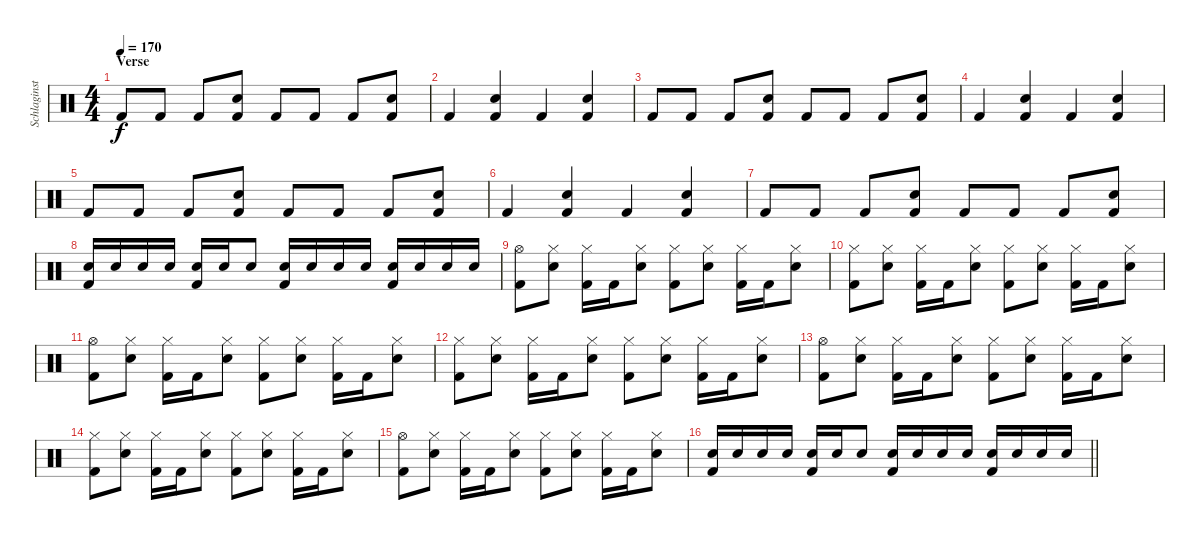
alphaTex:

\track ("Schlaginstrumente - Auswahl" "Schlaginst") {instrument percussion}
\staff {score}
\articulation defaults
\ts (4 4)
\section ("" "Verse")
\tempo 170
\clef neutral
\ks c "Kick (hit) 2".8{dy f} "Kick (hit) 2".8 "Kick (hit) 2".8
("Snare (hit) 2" "Kick (hit) 2").8 "Kick (hit) 2".8 "Kick (hit) 2".8 "Kick (hit) 2".8 ("Snare (hit) 2" "Kick (hit) 2").8 |
"Kick (hit) 2".4 ("Snare (hit) 2" "Kick (hit) 2").4 "Kick (hit) 2".4 ("Snare (hit) 2" "Kick (hit) 2").4 |
"Kick (hit) 2".8 "Kick (hit) 2".8 "Kick (hit) 2".8 ("Snare (hit) 2" "Kick (hit) 2").8 "Kick (hit) 2".8 "Kick (hit) 2".8 "Kick (hit) 2".8 ("Snare (hit) 2" "Kick (hit) 2").8 |
"Kick (hit) 2".4 ("Snare (hit) 2" "Kick (hit) 2").4 "Kick (hit) 2".4 ("Snare (hit) 2" "Kick (hit) 2").4 |
"Kick (hit) 2".8 "Kick (hit) 2".8 "Kick (hit) 2".8 ("Snare (hit) 2" "Kick (hit) 2").8 "Kick (hit) 2".8 "Kick (hit) 2".8 "Kick (hit) 2".8 ("Snare (hit) 2" "Kick (hit) 2").8 |
"Kick (hit) 2".4 ("Snare (hit) 2" "Kick (hit) 2").4 "Kick (hit) 2".4 ("Snare (hit) 2" "Kick (hit) 2").4 |
"Kick (hit) 2".8 "Kick (hit) 2".8 "Kick (hit) 2".8 ("Snare (hit) 2" "Kick (hit) 2").8 "Kick (hit) 2".8 "Kick (hit) 2".8 "Kick (hit) 2".8 ("Snare (hit) 2" "Kick (hit) 2").8 |
("Snare (hit) 2" "Kick (hit) 2").16 "Snare (hit) 2".16 "Snare (hit) 2".16 "Snare (hit) 2".16 ("Snare (hit) 2" "Kick (hit) 2").16 "Snare (hit) 2".16 "Snare (hit) 2".8 ("Snare (hit) 2" "Kick (hit) 2").16 "Snare (hit) 2".16 "Snare (hit) 2".16 "Snare (hit) 2".16 ("Snare (hit) 2" "Kick (hit) 2").16 "Snare (hit) 2".16 "Snare (hit) 2".16 "Snare (hit) 2".16 |
("Hi-Hat (open)" "Kick (hit) 2").8 ("Hi-Hat (closed)" "Snare (hit) 2").8 ("Hi-Hat (closed)" "Kick (hit) 2").16 "Kick (hit) 2".16 ("Hi-Hat (closed)" "Snare (hit) 2").8 ("Hi-Hat (closed)" "Kick (hit) 2").8 ("Hi-Hat (closed)" "Snare (hit) 2").8 ("Hi-Hat (closed)" "Kick (hit) 2").16 "Kick (hit) 2".16 ("Hi-Hat (closed)" "Snare (hit) 2").8 |
("Hi-Hat (closed)" "Kick (hit) 2").8 ("Hi-Hat (closed)" "Snare (hit) 2").8 ("Hi-Hat (closed)" "Kick (hit) 2").16 "Kick (hit) 2".16 ("Hi-Hat (closed)" "Snare (hit) 2").8 ("Hi-Hat (closed)" "Kick (hit) 2").8 ("Hi-Hat (closed)" "Snare (hit) 2").8 ("Hi-Hat (closed)" "Kick (hit) 2").16 "Kick (hit) 2".16 ("Hi-Hat (closed)" "Snare (hit) 2").8 |
("Hi-Hat (open)" "Kick (hit) 2").8 ("Hi-Hat (closed)" "Snare (hit) 2").8 ("Hi-Hat (closed)" "Kick (hit) 2").16 "Kick (hit) 2".16 ("Hi-Hat (closed)" "Snare (hit) 2").8 ("Hi-Hat (closed)" "Kick (hit) 2").8 ("Hi-Hat (closed)" "Snare (hit) 2").8 ("Hi-Hat (closed)" "Kick (hit) 2").16 "Kick (hit) 2".16 ("Hi-Hat (closed)" "Snare (hit) 2").8 |
("Hi-Hat (closed)" "Kick (hit) 2").8 ("Hi-Hat (closed)" "Snare (hit) 2").8 ("Hi-Hat (closed)" "Kick (hit) 2").16 "Kick (hit) 2".16 ("Hi-Hat (closed)" "Snare (hit) 2").8 ("Hi-Hat (closed)" "Kick (hit) 2").8 ("Hi-Hat (closed)" "Snare (hit) 2").8 ("Hi-Hat (closed)" "Kick (hit) 2").16 "Kick (hit) 2".16 ("Hi-Hat (closed)" "Snare (hit) 2").8 |
("Hi-Hat (open)" "Kick (hit) 2").8 ("Hi-Hat (closed)" "Snare (hit) 2").8 ("Hi-Hat (closed)" "Kick (hit) 2").16 "Kick (hit) 2".16 ("Hi-Hat (closed)" "Snare (hit) 2").8 ("Hi-Hat (closed)" "Kick (hit) 2").8 ("Hi-Hat (closed)" "Snare (hit) 2").8 ("Hi-Hat (closed)" "Kick (hit) 2").16 "Kick (hit) 2".16 ("Hi-Hat (closed)" "Snare (hit) 2").8 |
("Hi-Hat (closed)" "Kick (hit) 2").8 ("Hi-Hat (closed)" "Snare (hit) 2").8 ("Hi-Hat (closed)" "Kick (hit) 2").16 "Kick (hit) 2".16 ("Hi-Hat (closed)" "Snare (hit) 2").8 ("Hi-Hat (closed)" "Kick (hit) 2").8 ("Hi-Hat (closed)" "Snare (hit) 2").8 ("Hi-Hat (closed)" "Kick (hit) 2").16 "Kick (hit) 2".16 ("Hi-Hat (closed)" "Snare (hit) 2").8 |
("Hi-Hat (open)" "Kick (hit) 2").8 ("Hi-Hat (closed)" "Snare (hit) 2").8 ("Hi-Hat (closed)" "Kick (hit) 2").16 "Kick (hit) 2".16 ("Hi-Hat (closed)" "Snare (hit) 2").8 ("Hi-Hat (closed)" "Kick (hit) 2").8 ("Hi-Hat (closed)" "Snare (hit) 2").8 ("Hi-Hat (closed)" "Kick (hit) 2").16 "Kick (hit) 2".16 ("Hi-Hat (closed)" "Snare (hit) 2").8 |
\barLineRight lightlight
("Snare (hit) 2" "Kick (hit) 2").16 "Snare (hit) 2".16 "Snare (hit) 2".16 "Snare (hit) 2".16 ("Snare (hit) 2" "Kick (hit) 2").16 "Snare (hit) 2".16 "Snare (hit) 2".8 ("Snare (hit) 2" "Kick (hit) 2").16 "Snare (hit) 2".16 "Snare (hit) 2".16 "Snare (hit) 2".16 ("Snare (hit) 2" "Kick (hit) 2").16 "Snare (hit) 2".16 "Snare (hit) 2".16 "Snare (hit) 2".16
